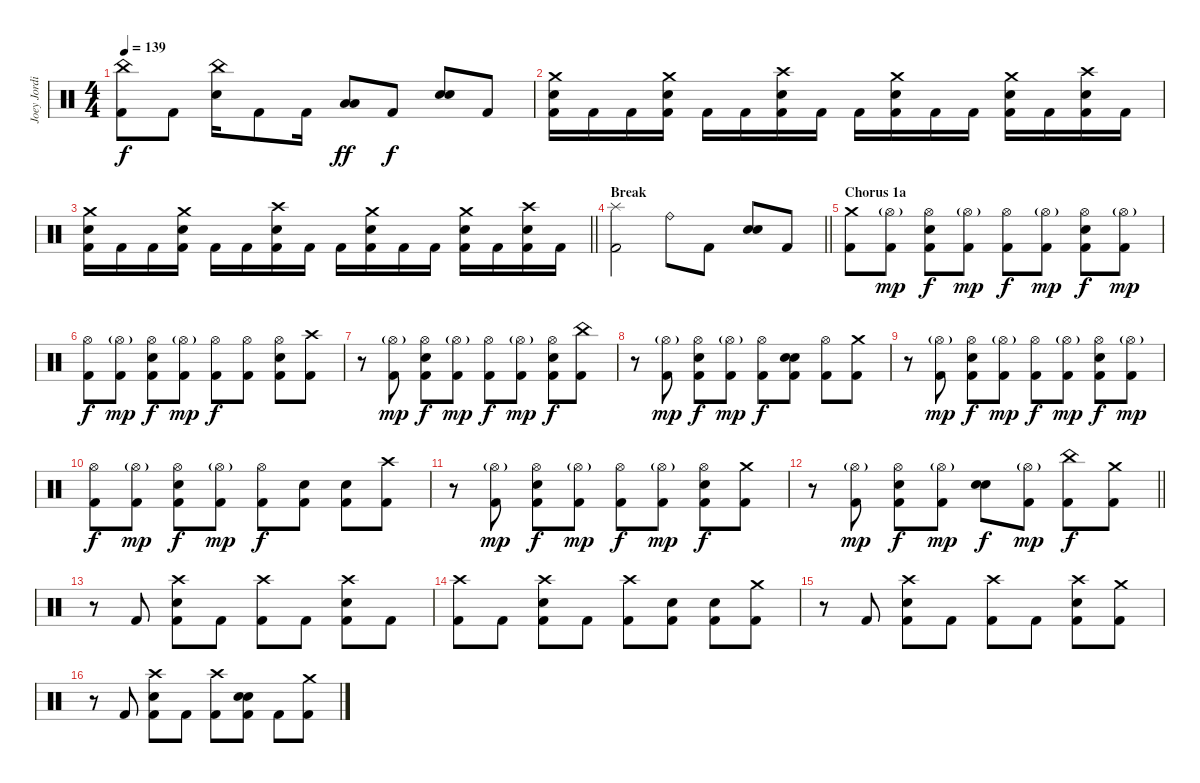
\track ("Joey Jordison" "Joey Jordi") {instrument percussion}
\staff {score}
\articulation defaults
\ts (4 4)
\tempo 139
\clef neutral
\ks c
("China (hit)" "Kick (hit) 2").8{dy f} "Kick (hit) 2".8 ("China (hit)" "Electric Snare (hit)").16 "Kick (hit) 2".8 "Kick (hit) 2".16 ("Low Tom (hit)" "Low Floor Tom (hit)").8{dy ff} "Kick (hit) 2".8{dy f} ("Electric Snare (hit)" "Electric Snare (hit)").8{bd 240} "Kick (hit) 2".8 |
("Crash medium (hit)" "Electric Snare (hit)" "Kick (hit) 2").16 "Kick (hit) 2".16 "Kick (hit) 2".16 ("Crash medium (hit)" "Electric Snare (hit)" "Kick (hit) 2").16 "Kick (hit) 2".16 "Kick (hit) 2".16 ("Crash high (hit)" "Electric Snare (hit)" "Kick (hit) 2").16 "Kick (hit) 2".16 "Kick (hit) 2".16 ("Crash medium (hit)" "Electric Snare (hit)" "Kick (hit) 2").16 "Kick (hit) 2".16 "Kick (hit) 2".16 ("Crash medium (hit)" "Electric Snare (hit)" "Kick (hit) 2").16 "Kick (hit) 2".16 ("Crash high (hit)" "Electric Snare (hit)" "Kick (hit) 2").16 "Kick (hit) 2".16 |
\barLineRight lightlight
("Crash medium (hit)" "Electric Snare (hit)" "Kick (hit) 2").16 "Kick (hit) 2".16 "Kick (hit) 2".16 ("Crash medium (hit)" "Electric Snare (hit)" "Kick (hit) 2").16 "Kick (hit) 2".16 "Kick (hit) 2".16 ("Crash high (hit)" "Electric Snare (hit)" "Kick (hit) 2").16 "Kick (hit) 2".16 "Kick (hit) 2".16 ("Crash medium (hit)" "Electric Snare (hit)" "Kick (hit) 2").16 "Kick (hit) 2".16 "Kick (hit) 2".16 ("Crash medium (hit)" "Electric Snare (hit)" "Kick (hit) 2").16 "Kick (hit) 2".16 ("Crash high (hit)" "Electric Snare (hit)" "Kick (hit) 2").16 "Kick (hit) 2".16 |
\section ("" "Break")
\barLineRight lightlight
("Splash (hit)" "Kick (hit) 2").2 "Ride (bell)".8 "Kick (hit) 2".8 ("Electric Snare (hit)" "Electric Snare (hit)").8{bd 240} "Kick (hit) 2".8 |
\section ("" "Chorus 1a")
("Crash medium (hit)" "Kick (hit) 2").8 ("Hi-Hat (open)"{g} "Kick (hit) 2").8{dy mp} ("Hi-Hat (open)" "Electric Snare (hit)" "Kick (hit) 2").8{dy f} ("Hi-Hat (open)"{g} "Kick (hit) 2").8{dy mp} ("Hi-Hat (open)" "Kick (hit) 2").8{dy f} ("Hi-Hat (open)"{g} "Kick (hit) 2").8{dy mp} ("Hi-Hat (open)" "Electric Snare (hit)" "Kick (hit) 2").8{dy f} ("Hi-Hat (open)"{g} "Kick (hit) 2").8{dy mp} |
("Hi-Hat (open)" "Kick (hit) 2").8{dy f} ("Hi-Hat (open)"{g} "Kick (hit) 2").8{dy mp} ("Hi-Hat (open)" "Electric Snare (hit)" "Kick (hit) 2").8{dy f} ("Hi-Hat (open)"{g} "Kick (hit) 2").8{dy mp} ("Hi-Hat (open)" "Kick (hit) 2").8{dy f} ("Hi-Hat (open)" "Kick (hit) 2").8 ("Hi-Hat (open)" "Electric Snare (hit)" "Kick (hit) 2").8 ("Crash high (hit)" "Kick (hit) 2").8 |
r.8 ("Hi-Hat (open)"{g} "Kick (hit) 2").8{dy mp} ("Hi-Hat (open)" "Electric Snare (hit)" "Kick (hit) 2").8{dy f} ("Hi-Hat (open)"{g} "Kick (hit) 2").8{dy mp} ("Hi-Hat (open)" "Kick (hit) 2").8{dy f} ("Hi-Hat (open)"{g} "Kick (hit) 2").8{dy mp} ("Hi-Hat (open)" "Electric Snare (hit)" "Kick (hit) 2").8{dy f} ("China (hit)" "Kick (hit) 2").8 |
r.8 ("Hi-Hat (open)"{g} "Kick (hit) 2").8{dy mp} ("Hi-Hat (open)" "Electric Snare (hit)" "Kick (hit) 2").8{dy f} ("Hi-Hat (open)"{g} "Kick (hit) 2").8{dy mp} ("Hi-Hat (open)" "Kick (hit) 2").8{dy f} ("Electric Snare (hit)" "Electric Snare (hit)" "Kick (hit) 2").8{bd 240} ("Hi-Hat (open)" "Kick (hit) 2").8 ("Crash medium (hit)" "Kick (hit) 2").8 |
r.8 ("Hi-Hat (open)"{g} "Kick (hit) 2").8{dy mp} ("Hi-Hat (open)" "Electric Snare (hit)" "Kick (hit) 2").8{dy f} ("Hi-Hat (open)"{g} "Kick (hit) 2").8{dy mp} ("Hi-Hat (open)" "Kick (hit) 2").8{dy f} ("Hi-Hat (open)"{g} "Kick (hit) 2").8{dy mp} ("Hi-Hat (open)" "Electric Snare (hit)" "Kick (hit) 2").8{dy f} ("Hi-Hat (open)"{g} "Kick (hit) 2").8{dy mp} |
("Hi-Hat (open)" "Kick (hit) 2").8{dy f} ("Hi-Hat (open)"{g} "Kick (hit) 2").8{dy mp} ("Hi-Hat (open)" "Electric Snare (hit)" "Kick (hit) 2").8{dy f} ("Hi-Hat (open)"{g} "Kick (hit) 2").8{dy mp} ("Hi-Hat (open)" "Kick (hit) 2").8{dy f} ("Electric Snare (hit)" "Kick (hit) 2").8 ("Electric Snare (hit)" "Kick (hit) 2").8 ("Crash high (hit)" "Kick (hit) 2").8 |
r.8 ("Hi-Hat (open)"{g} "Kick (hit) 2").8{dy mp} ("Hi-Hat (open)" "Electric Snare (hit)" "Kick (hit) 2").8{dy f} ("Hi-Hat (open)"{g} "Kick (hit) 2").8{dy mp} ("Hi-Hat (open)" "Kick (hit) 2").8{dy f} ("Hi-Hat (open)"{g} "Kick (hit) 2").8{dy mp} ("Hi-Hat (open)" "Electric Snare (hit)" "Kick (hit) 2").8{dy f} ("Crash medium (hit)" "Kick (hit) 2").8 |
\barLineRight lightlight
r.8 ("Hi-Hat (open)"{g} "Kick (hit) 2").8{dy mp} ("Hi-Hat (open)" "Electric Snare (hit)" "Kick (hit) 2").8{dy f} ("Hi-Hat (open)"{g} "Kick (hit) 2").8{dy mp} ("Electric Snare (hit)" "Electric Snare (hit)").8{bd 240 dy f} ("Hi-Hat (open)"{g} "Kick (hit) 2").8{dy mp} ("China (hit)" "Kick (hit) 2").8{dy f} ("Crash medium (hit)" "Kick (hit) 2").8 |
r.8 "Kick (hit) 2".8 ("Crash high (hit)" "Electric Snare (hit)" "Kick (hit) 2").8 "Kick (hit) 2".8 ("Crash high (hit)" "Kick (hit) 2").8 "Kick (hit) 2".8 ("Crash high (hit)" "Electric Snare (hit)" "Kick (hit) 2").8 "Kick (hit) 2".8 |
("Crash high (hit)" "Kick (hit) 2").8 "Kick (hit) 2".8 ("Crash high (hit)" "Electric Snare (hit)" "Kick (hit) 2").8 "Kick (hit) 2".8 ("Crash high (hit)" "Kick (hit) 2").8 ("Electric Snare (hit)" "Kick (hit) 2").8 ("Electric Snare (hit)" "Kick (hit) 2").8 ("Crash medium (hit)" "Kick (hit) 2").8 |
r.8 "Kick (hit) 2".8 ("Crash high (hit)" "Electric Snare (hit)" "Kick (hit) 2").8 "Kick (hit) 2".8 ("Crash high (hit)" "Kick (hit) 2").8 "Kick (hit) 2".8 ("Crash high (hit)" "Electric Snare (hit)" "Kick (hit) 2").8 ("Crash medium (hit)" "Kick (hit) 2").8 |
r.8 "Kick (hit) 2".8 ("Crash high (hit)" "Electric Snare (hit)" "Kick (hit) 2").8 "Kick (hit) 2".8 ("Crash high (hit)" "Kick (hit) 2").8 ("Electric Snare (hit)" "Electric Snare (hit)" "Kick (hit) 2").8{bd 240} "Kick (hit) 2".8 ("Crash medium (hit)" "Kick (hit) 2").8
